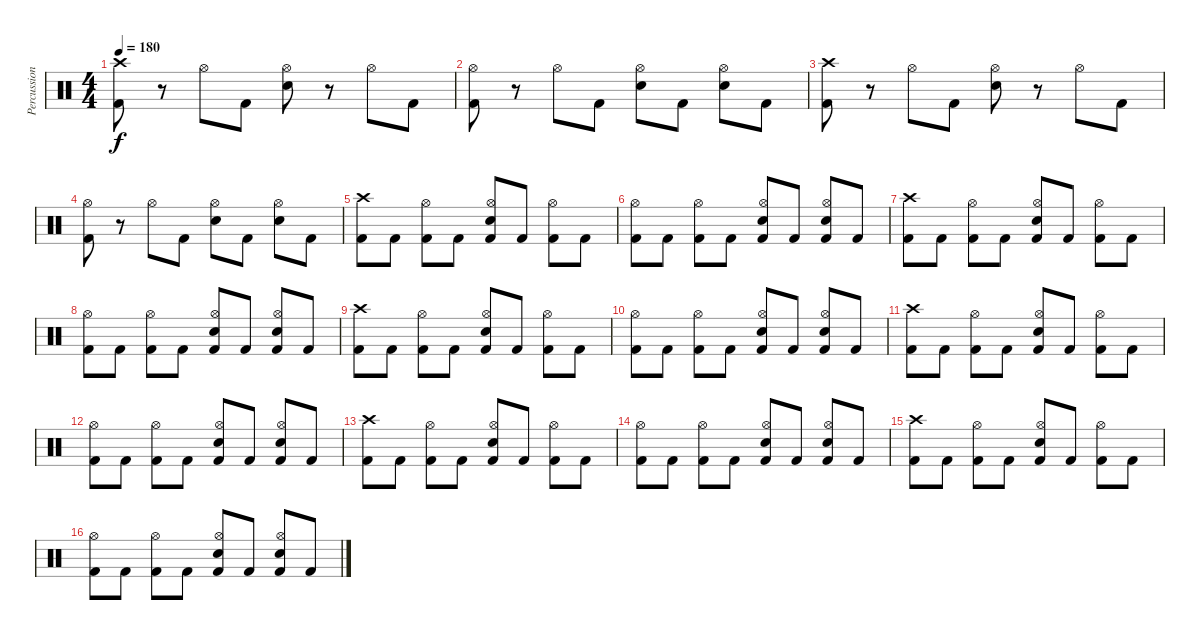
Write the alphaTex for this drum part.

\track ("Percussion" "Percussion") {instrument percussion}
\staff {score}
\articulation defaults
\ts (4 4)
\tempo 180
\clef neutral
\ks c
("Crash high (hit)" "Kick (hit) 2").8{dy f} r.8 "Hi-Hat (open)".8 "Kick (hit) 2".8 ("Hi-Hat (open)" "Electric Snare (hit)").8 r.8 "Hi-Hat (open)".8 "Kick (hit) 2".8 |
("Hi-Hat (open)" "Kick (hit) 2").8 r.8 "Hi-Hat (open)".8 "Kick (hit) 2".8 ("Hi-Hat (open)" "Electric Snare (hit)").8 "Kick (hit) 2".8 ("Hi-Hat (open)" "Electric Snare (hit)").8 "Kick (hit) 2".8 |
("Crash high (hit)" "Kick (hit) 2").8 r.8 "Hi-Hat (open)".8 "Kick (hit) 2".8 ("Hi-Hat (open)" "Electric Snare (hit)").8 r.8 "Hi-Hat (open)".8 "Kick (hit) 2".8 |
("Hi-Hat (open)" "Kick (hit) 2").8 r.8 "Hi-Hat (open)".8 "Kick (hit) 2".8 ("Hi-Hat (open)" "Electric Snare (hit)").8 "Kick (hit) 2".8 ("Hi-Hat (open)" "Electric Snare (hit)").8 "Kick (hit) 2".8 |
("Crash high (hit)" "Kick (hit) 2").8 "Kick (hit) 2".8 ("Hi-Hat (open)" "Kick (hit) 2").8 "Kick (hit) 2".8 ("Hi-Hat (open)" "Electric Snare (hit)" "Kick (hit) 2").8 "Kick (hit) 2".8 ("Hi-Hat (open)" "Kick (hit) 2").8 "Kick (hit) 2".8 |
("Hi-Hat (open)" "Kick (hit) 2").8 "Kick (hit) 2".8 ("Hi-Hat (open)" "Kick (hit) 2").8 "Kick (hit) 2".8 ("Hi-Hat (open)" "Electric Snare (hit)" "Kick (hit) 2").8 "Kick (hit) 2".8 ("Hi-Hat (open)" "Electric Snare (hit)" "Kick (hit) 2").8 "Kick (hit) 2".8 |
("Crash high (hit)" "Kick (hit) 2").8 "Kick (hit) 2".8 ("Hi-Hat (open)" "Kick (hit) 2").8 "Kick (hit) 2".8 ("Hi-Hat (open)" "Electric Snare (hit)" "Kick (hit) 2").8 "Kick (hit) 2".8 ("Hi-Hat (open)" "Kick (hit) 2").8 "Kick (hit) 2".8 |
("Hi-Hat (open)" "Kick (hit) 2").8 "Kick (hit) 2".8 ("Hi-Hat (open)" "Kick (hit) 2").8 "Kick (hit) 2".8 ("Hi-Hat (open)" "Electric Snare (hit)" "Kick (hit) 2").8 "Kick (hit) 2".8 ("Hi-Hat (open)" "Electric Snare (hit)" "Kick (hit) 2").8 "Kick (hit) 2".8 |
("Crash high (hit)" "Kick (hit) 2").8 "Kick (hit) 2".8 ("Hi-Hat (open)" "Kick (hit) 2").8 "Kick (hit) 2".8 ("Hi-Hat (open)" "Electric Snare (hit)" "Kick (hit) 2").8 "Kick (hit) 2".8 ("Hi-Hat (open)" "Kick (hit) 2").8 "Kick (hit) 2".8 |
("Hi-Hat (open)" "Kick (hit) 2").8 "Kick (hit) 2".8 ("Hi-Hat (open)" "Kick (hit) 2").8 "Kick (hit) 2".8 ("Hi-Hat (open)" "Electric Snare (hit)" "Kick (hit) 2").8 "Kick (hit) 2".8 ("Hi-Hat (open)" "Electric Snare (hit)" "Kick (hit) 2").8 "Kick (hit) 2".8 |
("Crash high (hit)" "Kick (hit) 2").8 "Kick (hit) 2".8 ("Hi-Hat (open)" "Kick (hit) 2").8 "Kick (hit) 2".8 ("Hi-Hat (open)" "Electric Snare (hit)" "Kick (hit) 2").8 "Kick (hit) 2".8 ("Hi-Hat (open)" "Kick (hit) 2").8 "Kick (hit) 2".8 |
("Hi-Hat (open)" "Kick (hit) 2").8 "Kick (hit) 2".8 ("Hi-Hat (open)" "Kick (hit) 2").8 "Kick (hit) 2".8 ("Hi-Hat (open)" "Electric Snare (hit)" "Kick (hit) 2").8 "Kick (hit) 2".8 ("Hi-Hat (open)" "Electric Snare (hit)" "Kick (hit) 2").8 "Kick (hit) 2".8 |
("Crash high (hit)" "Kick (hit) 2").8 "Kick (hit) 2".8 ("Hi-Hat (open)" "Kick (hit) 2").8 "Kick (hit) 2".8 ("Hi-Hat (open)" "Electric Snare (hit)" "Kick (hit) 2").8 "Kick (hit) 2".8 ("Hi-Hat (open)" "Kick (hit) 2").8 "Kick (hit) 2".8 |
("Hi-Hat (open)" "Kick (hit) 2").8 "Kick (hit) 2".8 ("Hi-Hat (open)" "Kick (hit) 2").8 "Kick (hit) 2".8 ("Hi-Hat (open)" "Electric Snare (hit)" "Kick (hit) 2").8 "Kick (hit) 2".8 ("Hi-Hat (open)" "Electric Snare (hit)" "Kick (hit) 2").8 "Kick (hit) 2".8 |
("Crash high (hit)" "Kick (hit) 2").8 "Kick (hit) 2".8 ("Hi-Hat (open)" "Kick (hit) 2").8 "Kick (hit) 2".8 ("Hi-Hat (open)" "Electric Snare (hit)" "Kick (hit) 2").8 "Kick (hit) 2".8 ("Hi-Hat (open)" "Kick (hit) 2").8 "Kick (hit) 2".8 |
("Hi-Hat (open)" "Kick (hit) 2").8 "Kick (hit) 2".8 ("Hi-Hat (open)" "Kick (hit) 2").8 "Kick (hit) 2".8 ("Hi-Hat (open)" "Electric Snare (hit)" "Kick (hit) 2").8 "Kick (hit) 2".8 ("Hi-Hat (open)" "Electric Snare (hit)" "Kick (hit) 2").8 "Kick (hit) 2".8
